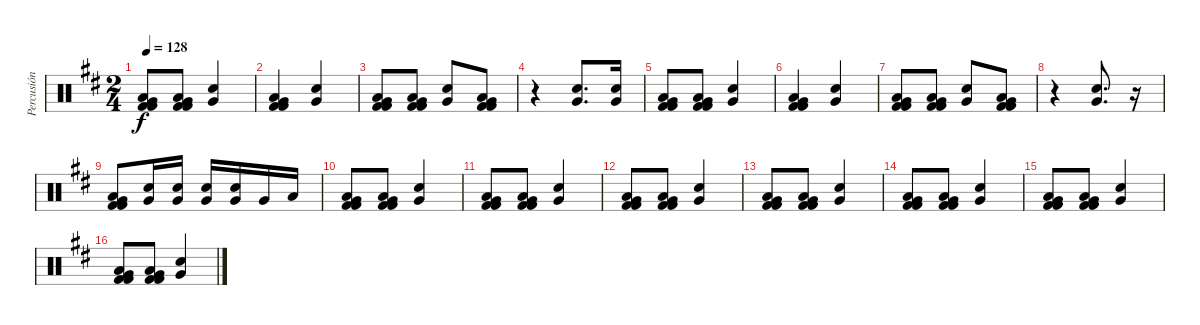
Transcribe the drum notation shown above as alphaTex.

\track ("Percusión" "Percusión") {instrument percussion}
\staff {score}
\articulation defaults
\ts (2 4)
\tempo 128
\clef neutral
\ks d
("Kick (hit) 2" "Low Floor Tom (hit)" "Kick (hit) 2" "Very Low Tom (hit)").8{dy f} ("Kick (hit) 2" "Low Floor Tom (hit)" "Kick (hit) 2" "Very Low Tom (hit)").8 ("Electric Snare (hit)" "Very Low Tom (hit)").4 |
("Kick (hit) 2" "Low Floor Tom (hit)" "Kick (hit) 2" "Very Low Tom (hit)").4 ("Electric Snare (hit)" "Very Low Tom (hit)").4 |
("Kick (hit) 2" "Low Floor Tom (hit)" "Kick (hit) 2" "Very Low Tom (hit)").8 ("Kick (hit) 2" "Low Floor Tom (hit)" "Kick (hit) 2" "Very Low Tom (hit)").8 ("Electric Snare (hit)" "Very Low Tom (hit)").8 ("Kick (hit) 2" "Low Floor Tom (hit)" "Kick (hit) 2" "Very Low Tom (hit)").8 |
r.4 ("Electric Snare (hit)" "Very Low Tom (hit)").8{d} ("Electric Snare (hit)" "Very Low Tom (hit)").16 |
("Kick (hit) 2" "Low Floor Tom (hit)" "Kick (hit) 2" "Very Low Tom (hit)").8 ("Kick (hit) 2" "Low Floor Tom (hit)" "Kick (hit) 2" "Very Low Tom (hit)").8 ("Electric Snare (hit)" "Very Low Tom (hit)").4 |
("Kick (hit) 2" "Low Floor Tom (hit)" "Kick (hit) 2" "Very Low Tom (hit)").4 ("Electric Snare (hit)" "Very Low Tom (hit)").4 |
("Kick (hit) 2" "Low Floor Tom (hit)" "Kick (hit) 2" "Very Low Tom (hit)").8 ("Kick (hit) 2" "Low Floor Tom (hit)" "Kick (hit) 2" "Very Low Tom (hit)").8 ("Electric Snare (hit)" "Very Low Tom (hit)").8 ("Kick (hit) 2" "Low Floor Tom (hit)" "Kick (hit) 2" "Very Low Tom (hit)").8 |
r.4 ("Electric Snare (hit)" "Very Low Tom (hit)").8{d} r.16 |
("Kick (hit) 2" "Low Floor Tom (hit)" "Kick (hit) 2" "Very Low Tom (hit)").8 ("Electric Snare (hit)" "Very Low Tom (hit)").16 ("Very Low Tom (hit)" "Snare (hit) 2").16 ("Electric Snare (hit)" "Very Low Tom (hit)").16 ("Very Low Tom (hit)" "Snare (hit) 2").16 "Very Low Tom (hit)".16 "Low Floor Tom (hit)".16 |
("Kick (hit) 2" "Low Floor Tom (hit)" "Kick (hit) 2" "Very Low Tom (hit)").8 ("Kick (hit) 2" "Low Floor Tom (hit)" "Kick (hit) 2" "Very Low Tom (hit)").8 ("Electric Snare (hit)" "Very Low Tom (hit)").4 |
("Kick (hit) 2" "Low Floor Tom (hit)" "Kick (hit) 2" "Very Low Tom (hit)").8 ("Kick (hit) 2" "Low Floor Tom (hit)" "Kick (hit) 2" "Very Low Tom (hit)").8 ("Electric Snare (hit)" "Very Low Tom (hit)").4 |
("Kick (hit) 2" "Low Floor Tom (hit)" "Kick (hit) 2" "Very Low Tom (hit)").8 ("Kick (hit) 2" "Low Floor Tom (hit)" "Kick (hit) 2" "Very Low Tom (hit)").8 ("Electric Snare (hit)" "Very Low Tom (hit)").4 |
("Kick (hit) 2" "Low Floor Tom (hit)" "Kick (hit) 2" "Very Low Tom (hit)").8 ("Kick (hit) 2" "Low Floor Tom (hit)" "Kick (hit) 2" "Very Low Tom (hit)").8 ("Electric Snare (hit)" "Very Low Tom (hit)").4 |
("Kick (hit) 2" "Low Floor Tom (hit)" "Kick (hit) 2" "Very Low Tom (hit)").8 ("Kick (hit) 2" "Low Floor Tom (hit)" "Kick (hit) 2" "Very Low Tom (hit)").8 ("Electric Snare (hit)" "Very Low Tom (hit)").4 |
("Kick (hit) 2" "Low Floor Tom (hit)" "Kick (hit) 2" "Very Low Tom (hit)").8 ("Kick (hit) 2" "Low Floor Tom (hit)" "Kick (hit) 2" "Very Low Tom (hit)").8 ("Electric Snare (hit)" "Very Low Tom (hit)").4 |
("Kick (hit) 2" "Low Floor Tom (hit)" "Kick (hit) 2" "Very Low Tom (hit)").8 ("Kick (hit) 2" "Low Floor Tom (hit)" "Kick (hit) 2" "Very Low Tom (hit)").8 ("Electric Snare (hit)" "Very Low Tom (hit)").4
